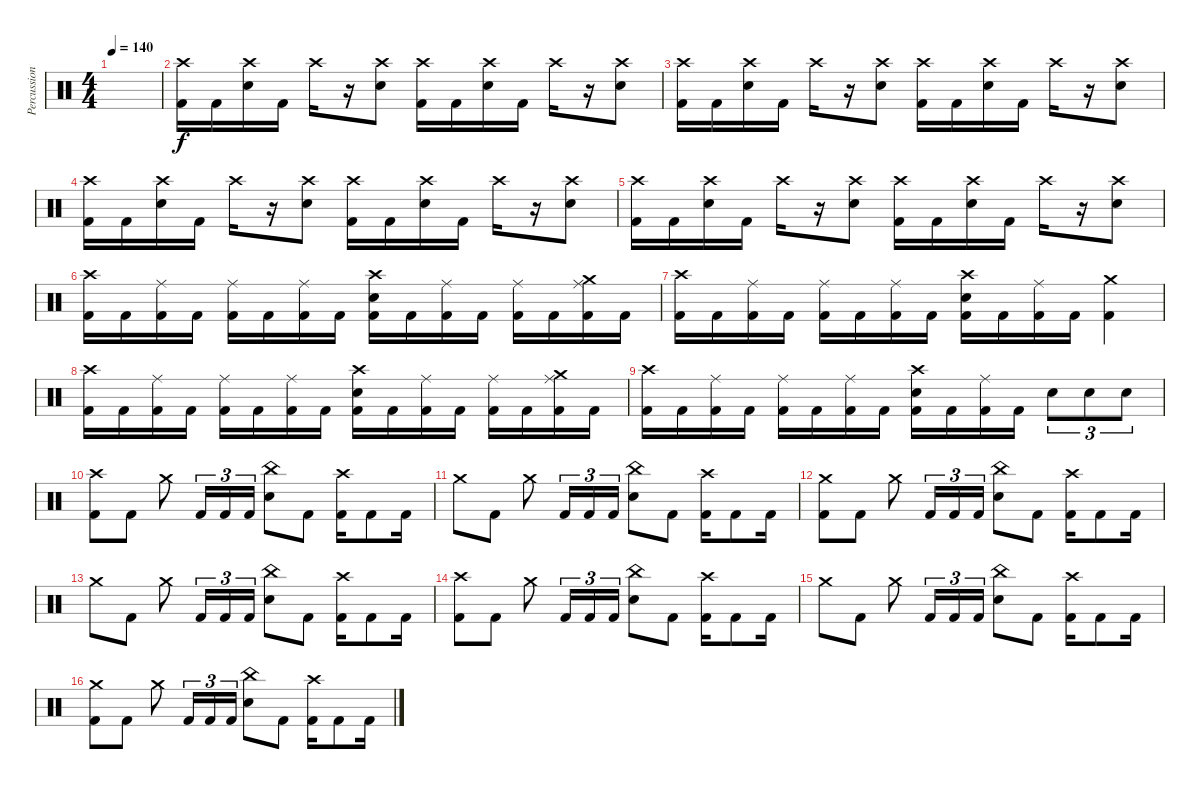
\track ("Percussion" "Percussion") {instrument percussion}
\staff {score}
\articulation defaults
\ts (4 4)
\tempo 140
\clef neutral
\ks c
|
("Crash high (hit)" "Kick (hit) 2").16 "Kick (hit) 2".16 ("Crash high (hit)" "Electric Snare (hit)").16 "Kick (hit) 2".16 "Crash high (hit)".16 r.16 ("Crash high (hit)" "Electric Snare (hit)").8 ("Crash high (hit)" "Kick (hit) 2").16 "Kick (hit) 2".16 ("Crash high (hit)" "Electric Snare (hit)").16 "Kick (hit) 2".16 "Crash high (hit)".16 r.16 ("Crash high (hit)" "Electric Snare (hit)").8 |
("Crash high (hit)" "Kick (hit) 2").16 "Kick (hit) 2".16 ("Crash high (hit)" "Electric Snare (hit)").16 "Kick (hit) 2".16 "Crash high (hit)".16 r.16 ("Crash high (hit)" "Electric Snare (hit)").8 ("Crash high (hit)" "Kick (hit) 2").16 "Kick (hit) 2".16 ("Crash high (hit)" "Electric Snare (hit)").16 "Kick (hit) 2".16 "Crash high (hit)".16 r.16 ("Crash high (hit)" "Electric Snare (hit)").8 |
("Crash high (hit)" "Kick (hit) 2").16 "Kick (hit) 2".16 ("Crash high (hit)" "Electric Snare (hit)").16 "Kick (hit) 2".16 "Crash high (hit)".16 r.16 ("Crash high (hit)" "Electric Snare (hit)").8 ("Crash high (hit)" "Kick (hit) 2").16 "Kick (hit) 2".16 ("Crash high (hit)" "Electric Snare (hit)").16 "Kick (hit) 2".16 "Crash high (hit)".16 r.16 ("Crash high (hit)" "Electric Snare (hit)").8 |
("Crash high (hit)" "Kick (hit) 2").16 "Kick (hit) 2".16 ("Crash high (hit)" "Electric Snare (hit)").16 "Kick (hit) 2".16 "Crash high (hit)".16 r.16 ("Crash high (hit)" "Electric Snare (hit)").8 ("Crash high (hit)" "Kick (hit) 2").16 "Kick (hit) 2".16 ("Crash high (hit)" "Electric Snare (hit)").16 "Kick (hit) 2".16 "Crash high (hit)".16 r.16 ("Crash high (hit)" "Electric Snare (hit)").8 |
("Crash high (hit)" "Kick (hit) 2").16 "Kick (hit) 2".16 ("Ride (middle)" "Kick (hit) 2").16 "Kick (hit) 2".16 ("Ride (middle)" "Kick (hit) 2").16 "Kick (hit) 2".16 ("Ride (middle)" "Kick (hit) 2").16 "Kick (hit) 2".16 ("Crash high (hit)" "Electric Snare (hit)" "Kick (hit) 2").16 "Kick (hit) 2".16 ("Ride (middle)" "Kick (hit) 2").16 "Kick (hit) 2".16 ("Ride (middle)" "Kick (hit) 2").16 "Kick (hit) 2".16 ("Crash medium (hit)" "Ride (middle)" "Kick (hit) 2").16 "Kick (hit) 2".16 |
("Crash high (hit)" "Kick (hit) 2").16 "Kick (hit) 2".16 ("Ride (middle)" "Kick (hit) 2").16 "Kick (hit) 2".16 ("Ride (middle)" "Kick (hit) 2").16 "Kick (hit) 2".16 ("Ride (middle)" "Kick (hit) 2").16 "Kick (hit) 2".16 ("Crash high (hit)" "Electric Snare (hit)" "Kick (hit) 2").16 "Kick (hit) 2".16 ("Ride (middle)" "Kick (hit) 2").16 "Kick (hit) 2".16 ("Crash medium (hit)" "Kick (hit) 2").4 |
("Crash high (hit)" "Kick (hit) 2").16 "Kick (hit) 2".16 ("Ride (middle)" "Kick (hit) 2").16 "Kick (hit) 2".16 ("Ride (middle)" "Kick (hit) 2").16 "Kick (hit) 2".16 ("Ride (middle)" "Kick (hit) 2").16 "Kick (hit) 2".16 ("Crash high (hit)" "Electric Snare (hit)" "Kick (hit) 2").16 "Kick (hit) 2".16 ("Ride (middle)" "Kick (hit) 2").16 "Kick (hit) 2".16 ("Ride (middle)" "Kick (hit) 2").16 "Kick (hit) 2".16 ("Crash medium (hit)" "Ride (middle)" "Kick (hit) 2").16 "Kick (hit) 2".16 |
("Crash high (hit)" "Kick (hit) 2").16 "Kick (hit) 2".16 ("Ride (middle)" "Kick (hit) 2").16 "Kick (hit) 2".16 ("Ride (middle)" "Kick (hit) 2").16 "Kick (hit) 2".16 ("Ride (middle)" "Kick (hit) 2").16 "Kick (hit) 2".16 ("Crash high (hit)" "Electric Snare (hit)" "Kick (hit) 2").16 "Kick (hit) 2".16 ("Ride (middle)" "Kick (hit) 2").16 "Kick (hit) 2".16 "Electric Snare (hit)".8{tu (3 2)} "Electric Snare (hit)".8{tu (3 2)} "Electric Snare (hit)".8{tu (3 2)} |
("Crash high (hit)" "Kick (hit) 2").8 "Kick (hit) 2".8 "Crash medium (hit)".8 "Kick (hit) 2".16{tu (3 2)} "Kick (hit) 2".16{tu (3 2)} "Kick (hit) 2".16{tu (3 2)} ("China (hit)" "Electric Snare (hit)").8 "Kick (hit) 2".8 ("Crash high (hit)" "Kick (hit) 2").16 "Kick (hit) 2".8 "Kick (hit) 2".16 |
"Crash medium (hit)".8 "Kick (hit) 2".8 "Crash medium (hit)".8 "Kick (hit) 2".16{tu (3 2)} "Kick (hit) 2".16{tu (3 2)} "Kick (hit) 2".16{tu (3 2)} ("China (hit)" "Electric Snare (hit)").8 "Kick (hit) 2".8 ("Crash high (hit)" "Kick (hit) 2").16 "Kick (hit) 2".8 "Kick (hit) 2".16 |
("Crash medium (hit)" "Kick (hit) 2").8 "Kick (hit) 2".8 "Crash medium (hit)".8 "Kick (hit) 2".16{tu (3 2)} "Kick (hit) 2".16{tu (3 2)} "Kick (hit) 2".16{tu (3 2)} ("China (hit)" "Electric Snare (hit)").8 "Kick (hit) 2".8 ("Crash high (hit)" "Kick (hit) 2").16 "Kick (hit) 2".8 "Kick (hit) 2".16 |
"Crash medium (hit)".8 "Kick (hit) 2".8 "Crash medium (hit)".8 "Kick (hit) 2".16{tu (3 2)} "Kick (hit) 2".16{tu (3 2)} "Kick (hit) 2".16{tu (3 2)} ("China (hit)" "Electric Snare (hit)").8 "Kick (hit) 2".8 ("Crash high (hit)" "Kick (hit) 2").16 "Kick (hit) 2".8 "Kick (hit) 2".16 |
("Crash high (hit)" "Kick (hit) 2").8 "Kick (hit) 2".8 "Crash medium (hit)".8 "Kick (hit) 2".16{tu (3 2)} "Kick (hit) 2".16{tu (3 2)} "Kick (hit) 2".16{tu (3 2)} ("China (hit)" "Electric Snare (hit)").8 "Kick (hit) 2".8 ("Crash high (hit)" "Kick (hit) 2").16 "Kick (hit) 2".8 "Kick (hit) 2".16 |
"Crash medium (hit)".8 "Kick (hit) 2".8 "Crash medium (hit)".8 "Kick (hit) 2".16{tu (3 2)} "Kick (hit) 2".16{tu (3 2)} "Kick (hit) 2".16{tu (3 2)} ("China (hit)" "Electric Snare (hit)").8 "Kick (hit) 2".8 ("Crash high (hit)" "Kick (hit) 2").16 "Kick (hit) 2".8 "Kick (hit) 2".16 |
("Crash medium (hit)" "Kick (hit) 2").8 "Kick (hit) 2".8 "Crash medium (hit)".8 "Kick (hit) 2".16{tu (3 2)} "Kick (hit) 2".16{tu (3 2)} "Kick (hit) 2".16{tu (3 2)} ("China (hit)" "Electric Snare (hit)").8 "Kick (hit) 2".8 ("Crash high (hit)" "Kick (hit) 2").16 "Kick (hit) 2".8 "Kick (hit) 2".16
